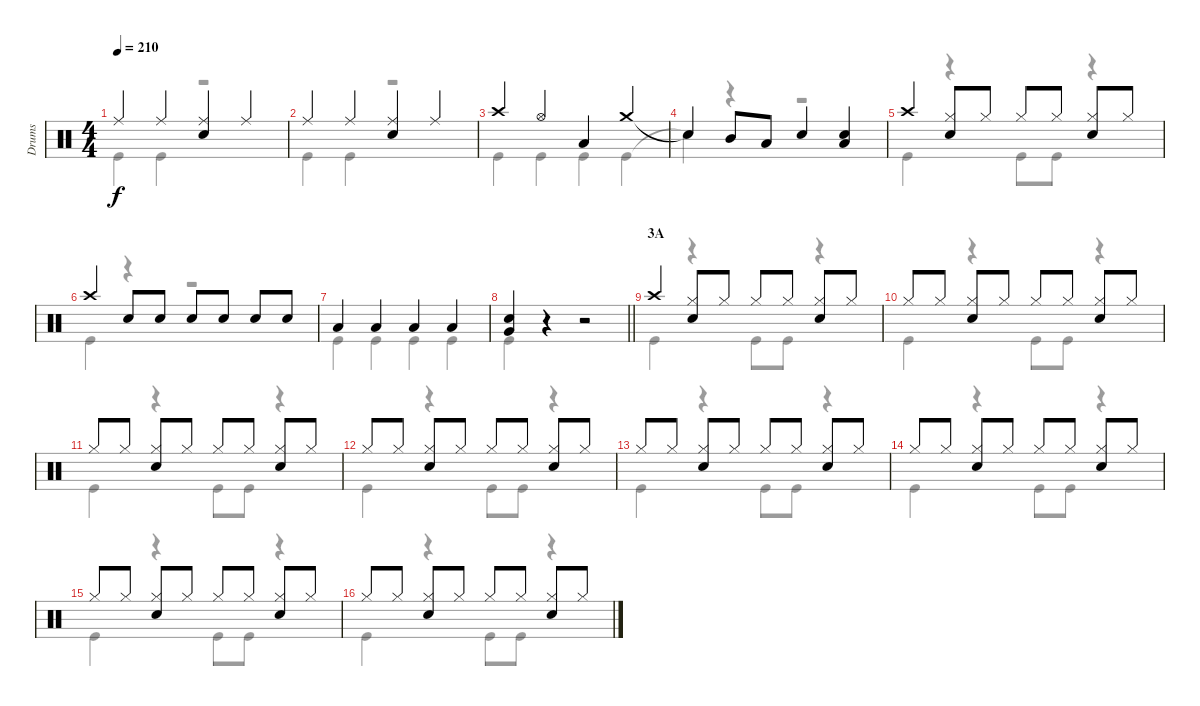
\track ("Drums" "Drums") {instrument percussion}
\staff {score}
\articulation defaults
\voice
\ts (4 4)
\tempo 210
\clef neutral
\ks c "Ride (middle)".4{dy f} "Ride (middle)".4
("Ride (middle)" "Snare (hit) 2").4 "Ride (middle)".4 |
"Ride (middle)".4 "Ride (middle)".4 ("Ride (middle)" "Snare (hit) 2").4 "Ride (middle)".4 |
"Crash high (hit)".4 "Hi-Hat (open)".4 "Low Tom (hit)".4 "Crash medium (hit)".4 |
"Snare (hit)"{t}.4 "Mid Tom (hit)".8 "Low Tom (hit)".8 "Snare (hit) 2".4 ("Snare (hit) 2" "Low Tom (hit)").4 |
"Crash high (hit)".4 ("Hi-Hat (closed)" "Snare (hit) 2").8 "Hi-Hat (closed)".8 "Hi-Hat (closed)".8 "Hi-Hat (closed)".8 ("Hi-Hat (closed)" "Snare (hit) 2").8 "Hi-Hat (closed)".8 |
"Crash high (hit)".4 "Snare (hit) 2".8 "Snare (hit) 2".8 "Snare (hit) 2".8 "Snare (hit) 2".8 "Snare (hit) 2".8 "Snare (hit) 2".8 |
"Low Tom (hit)".4 "Low Tom (hit)".4 "Low Tom (hit)".4 "Low Tom (hit)".4 |
\barLineRight lightlight
("Very Low Tom (hit)" "Snare (hit) 2").4 r.4 r.2 |
\section ("" "3A")
"Crash high (hit)".4 ("Hi-Hat (closed)" "Snare (hit) 2").8 "Hi-Hat (closed)".8 "Hi-Hat (closed)".8 "Hi-Hat (closed)".8 ("Hi-Hat (closed)" "Snare (hit) 2").8 "Hi-Hat (closed)".8 |
"Hi-Hat (closed)".8 "Hi-Hat (closed)".8 ("Hi-Hat (closed)" "Snare (hit) 2").8 "Hi-Hat (closed)".8 "Hi-Hat (closed)".8 "Hi-Hat (closed)".8 ("Hi-Hat (closed)" "Snare (hit) 2").8 "Hi-Hat (closed)".8 |
"Hi-Hat (closed)".8 "Hi-Hat (closed)".8 ("Hi-Hat (closed)" "Snare (hit) 2").8 "Hi-Hat (closed)".8 "Hi-Hat (closed)".8 "Hi-Hat (closed)".8 ("Hi-Hat (closed)" "Snare (hit) 2").8 "Hi-Hat (closed)".8 |
"Hi-Hat (closed)".8 "Hi-Hat (closed)".8 ("Hi-Hat (closed)" "Snare (hit) 2").8 "Hi-Hat (closed)".8 "Hi-Hat (closed)".8 "Hi-Hat (closed)".8 ("Hi-Hat (closed)" "Snare (hit) 2").8 "Hi-Hat (closed)".8 |
"Hi-Hat (closed)".8 "Hi-Hat (closed)".8 ("Hi-Hat (closed)" "Snare (hit) 2").8 "Hi-Hat (closed)".8 "Hi-Hat (closed)".8 "Hi-Hat (closed)".8 ("Hi-Hat (closed)" "Snare (hit) 2").8 "Hi-Hat (closed)".8 |
"Hi-Hat (closed)".8 "Hi-Hat (closed)".8 ("Hi-Hat (closed)" "Snare (hit) 2").8 "Hi-Hat (closed)".8 "Hi-Hat (closed)".8 "Hi-Hat (closed)".8 ("Hi-Hat (closed)" "Snare (hit) 2").8 "Hi-Hat (closed)".8 |
"Hi-Hat (closed)".8 "Hi-Hat (closed)".8 ("Hi-Hat (closed)" "Snare (hit) 2").8 "Hi-Hat (closed)".8 "Hi-Hat (closed)".8 "Hi-Hat (closed)".8 ("Hi-Hat (closed)" "Snare (hit) 2").8 "Hi-Hat (closed)".8 |
"Hi-Hat (closed)".8 "Hi-Hat (closed)".8 ("Hi-Hat (closed)" "Snare (hit) 2").8 "Hi-Hat (closed)".8 "Hi-Hat (closed)".8 "Hi-Hat (closed)".8 ("Hi-Hat (closed)" "Snare (hit) 2").8 "Hi-Hat (closed)".8
\voice
\clef neutral
\ottava regular
\simile none
\ks c "Kick (hit)".4{dy f} "Kick (hit)".4
r.2 |
"Kick (hit)".4 "Kick (hit)".4 r.2 |
"Kick (hit)".4 "Kick (hit)".4 "Kick (hit)".4 "Kick (hit)".4 |
"Snare (hit)"{t}.4 r.4 r.2 |
"Kick (hit)".4 r.4 "Kick (hit)".8 "Kick (hit)".8 r.4 |
"Kick (hit)".4 r.4 r.2 |
"Kick (hit)".4 "Kick (hit)".4 "Kick (hit)".4 "Kick (hit)".4 |
\barLineRight lightlight "Kick (hit)".4
r.4 r.2 |
"Kick (hit)".4 r.4 "Kick (hit)".8 "Kick (hit)".8 r.4 |
"Kick (hit)".4 r.4 "Kick (hit)".8 "Kick (hit)".8 r.4 |
"Kick (hit)".4 r.4 "Kick (hit)".8 "Kick (hit)".8 r.4 |
"Kick (hit)".4 r.4 "Kick (hit)".8 "Kick (hit)".8 r.4 |
"Kick (hit)".4 r.4 "Kick (hit)".8 "Kick (hit)".8 r.4 |
"Kick (hit)".4 r.4 "Kick (hit)".8 "Kick (hit)".8 r.4 |
"Kick (hit)".4 r.4 "Kick (hit)".8 "Kick (hit)".8 r.4 |
"Kick (hit)".4 r.4 "Kick (hit)".8 "Kick (hit)".8 r.4
